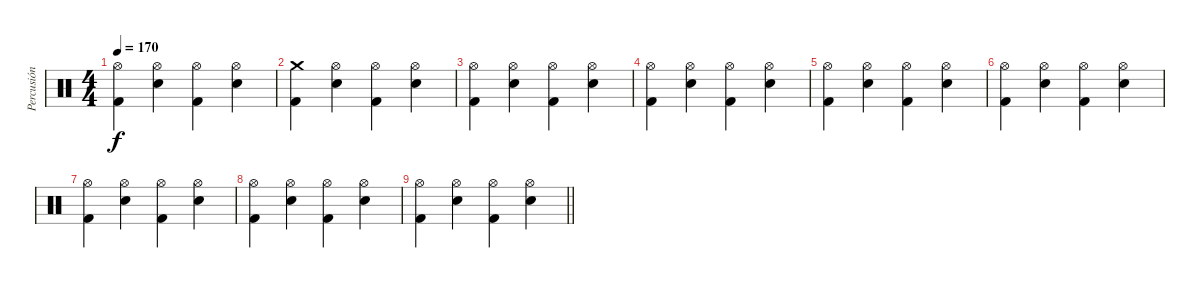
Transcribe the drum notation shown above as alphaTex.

\track ("Percusión" "Percusión") {instrument percussion}
\staff {score}
\articulation defaults
\ts (4 4)
\tempo 170
\clef neutral
\ks c
("Hi-Hat (open)" "Kick (hit) 2").4{dy f} ("Hi-Hat (open)" "Snare (hit) 2").4 ("Hi-Hat (open)" "Kick (hit) 2").4 ("Hi-Hat (open)" "Snare (hit) 2").4 |
("Crash medium (hit)" "Kick (hit) 2").4 ("Hi-Hat (open)" "Snare (hit) 2").4 ("Hi-Hat (open)" "Kick (hit) 2").4 ("Hi-Hat (open)" "Snare (hit) 2").4 |
("Hi-Hat (open)" "Kick (hit) 2").4 ("Hi-Hat (open)" "Snare (hit) 2").4 ("Hi-Hat (open)" "Kick (hit) 2").4 ("Hi-Hat (open)" "Snare (hit) 2").4 |
("Hi-Hat (open)" "Kick (hit) 2").4 ("Hi-Hat (open)" "Snare (hit) 2").4 ("Hi-Hat (open)" "Kick (hit) 2").4 ("Hi-Hat (open)" "Snare (hit) 2").4 |
("Hi-Hat (open)" "Kick (hit) 2").4 ("Hi-Hat (open)" "Snare (hit) 2").4 ("Hi-Hat (open)" "Kick (hit) 2").4 ("Hi-Hat (open)" "Snare (hit) 2").4 |
("Hi-Hat (open)" "Kick (hit) 2").4 ("Hi-Hat (open)" "Snare (hit) 2").4 ("Hi-Hat (open)" "Kick (hit) 2").4 ("Hi-Hat (open)" "Snare (hit) 2").4 |
("Hi-Hat (open)" "Kick (hit) 2").4 ("Hi-Hat (open)" "Snare (hit) 2").4 ("Hi-Hat (open)" "Kick (hit) 2").4 ("Hi-Hat (open)" "Snare (hit) 2").4 |
("Hi-Hat (open)" "Kick (hit) 2").4 ("Hi-Hat (open)" "Snare (hit) 2").4 ("Hi-Hat (open)" "Kick (hit) 2").4 ("Hi-Hat (open)" "Snare (hit) 2").4 |
\barLineRight lightlight
("Hi-Hat (open)" "Kick (hit) 2").4 ("Hi-Hat (open)" "Snare (hit) 2").4 ("Hi-Hat (open)" "Kick (hit) 2").4 ("Hi-Hat (open)" "Snare (hit) 2").4
